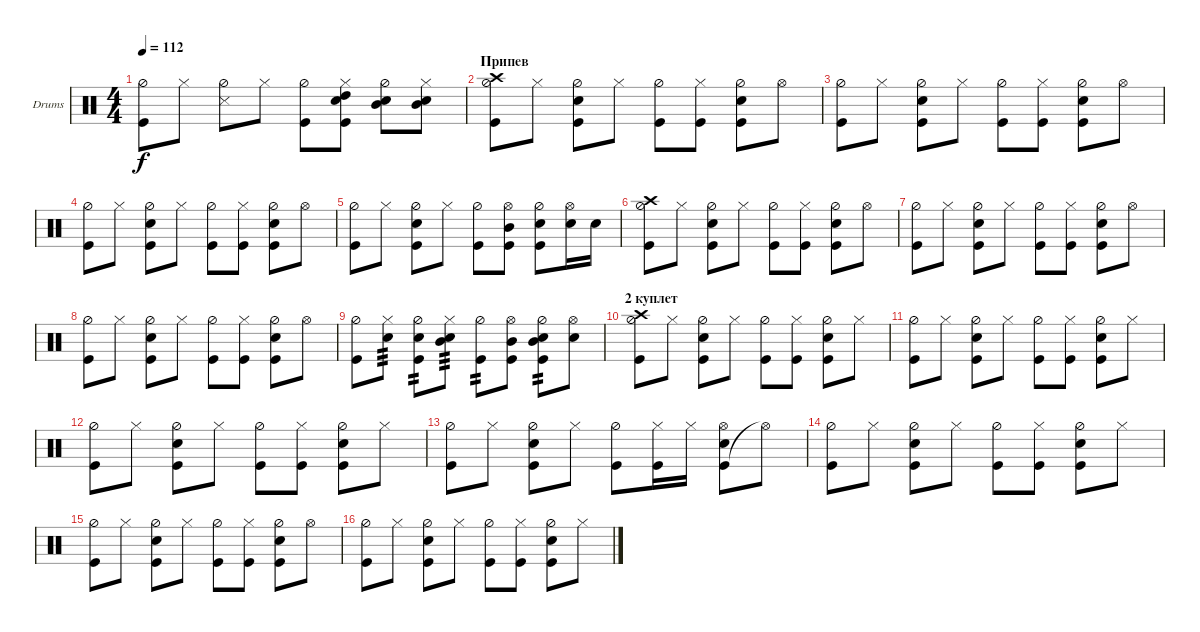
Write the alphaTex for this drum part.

\defaultSystemsLayout 4
\bracketExtendMode groupsimilarinstruments
\firstSystemTrackNameOrientation horizontal
\otherSystemsTrackNameOrientation horizontal
\track ("Drumkit" "Drums") {instrument percussion}
\staff {score}
\articulation defaults
\ts (4 4)
\tempo 112
\clef neutral
\ks c
("Hi-Hat (half)" "Kick (hit)").8{dy f} "Hi-Hat (closed)".8 ("Hi-Hat (half)" "Snare (side stick) 3").8 "Hi-Hat (closed)".8 ("Hi-Hat (half)" "Kick (hit)").8 ("Hi-Hat (closed)" "Kick (hit)" "High Tom (hit)" "Snare (hit) 2").8 ("Hi-Hat (half)" "Mid Tom (hit)" "Snare (hit) 2").8 ("Hi-Hat (closed)" "Mid Tom (hit)" "Snare (hit) 2").8 |
\section ("" "Припев")
("Hi-Hat (half)" "Kick (hit)" "Crash high (hit)").8 "Hi-Hat (closed)".8 ("Hi-Hat (half)" "Snare (hit) 2" "Kick (hit)").8 "Hi-Hat (closed)".8 ("Hi-Hat (half)" "Kick (hit)").8 ("Hi-Hat (closed)" "Kick (hit)").8 ("Hi-Hat (half)" "Snare (hit) 2" "Kick (hit)").8 "Hi-Hat (open)".8 |
("Hi-Hat (half)" "Kick (hit)").8 "Hi-Hat (closed)".8 ("Hi-Hat (half)" "Snare (hit) 2" "Kick (hit)").8 "Hi-Hat (closed)".8 ("Hi-Hat (half)" "Kick (hit)").8 ("Hi-Hat (closed)" "Kick (hit)").8 ("Hi-Hat (half)" "Snare (hit) 2" "Kick (hit)").8 "Hi-Hat (open)".8 |
("Hi-Hat (half)" "Kick (hit)").8 "Hi-Hat (closed)".8 ("Hi-Hat (half)" "Snare (hit) 2" "Kick (hit)").8 "Hi-Hat (closed)".8 ("Hi-Hat (half)" "Kick (hit)").8 ("Hi-Hat (closed)" "Kick (hit)").8 ("Hi-Hat (half)" "Snare (hit) 2" "Kick (hit)").8 "Hi-Hat (open)".8 |
("Hi-Hat (half)" "Kick (hit)").8 "Hi-Hat (closed)".8 ("Hi-Hat (half)" "Snare (hit) 2" "Kick (hit)").8 "Hi-Hat (closed)".8 ("Hi-Hat (half)" "Kick (hit)").8 ("Hi-Hat (open)" "Kick (hit)" "Mid Tom (hit)").8 ("Hi-Hat (half)" "Snare (hit) 2" "Kick (hit)").8 ("Hi-Hat (open)" "Snare (hit) 2").16 "Snare (hit) 2".16 |
("Hi-Hat (half)" "Kick (hit)" "Crash high (hit)").8 "Hi-Hat (closed)".8 ("Hi-Hat (half)" "Snare (hit) 2" "Kick (hit)").8 "Hi-Hat (closed)".8 ("Hi-Hat (half)" "Kick (hit)").8 ("Hi-Hat (closed)" "Kick (hit)").8 ("Hi-Hat (half)" "Snare (hit) 2" "Kick (hit)").8 "Hi-Hat (open)".8 |
("Hi-Hat (half)" "Kick (hit)").8 "Hi-Hat (closed)".8 ("Hi-Hat (half)" "Snare (hit) 2" "Kick (hit)").8 "Hi-Hat (closed)".8 ("Hi-Hat (half)" "Kick (hit)").8 ("Hi-Hat (closed)" "Kick (hit)").8 ("Hi-Hat (half)" "Snare (hit) 2" "Kick (hit)").8 "Hi-Hat (open)".8 |
("Hi-Hat (half)" "Kick (hit)").8 "Hi-Hat (closed)".8 ("Hi-Hat (half)" "Snare (hit) 2" "Kick (hit)").8 "Hi-Hat (closed)".8 ("Hi-Hat (half)" "Kick (hit)").8 ("Hi-Hat (closed)" "Kick (hit)").8 ("Hi-Hat (half)" "Snare (hit) 2" "Kick (hit)").8 "Hi-Hat (open)".8 |
("Hi-Hat (half)" "Kick (hit)").8 ("Hi-Hat (closed)" "Snare (hit) 2").8{tp 3} ("Hi-Hat (half)" "Snare (hit) 2" "Kick (hit)").8{tp 2} ("Hi-Hat (closed)" "Snare (hit) 2" "Mid Tom (hit)").8{tp 3} ("Hi-Hat (half)" "Kick (hit)").8{tp 2} ("Hi-Hat (open)" "Kick (hit)" "Mid Tom (hit)").8 ("Hi-Hat (half)" "Snare (hit) 2" "Kick (hit)" "Mid Tom (hit)").8{tp 2} ("Hi-Hat (open)" "Snare (hit) 2").8 |
\section ("" "2 куплет")
("Hi-Hat (half)" "Kick (hit)" "Crash high (hit)").8 "Hi-Hat (closed)".8 ("Hi-Hat (half)" "Snare (hit) 2" "Kick (hit)").8 "Hi-Hat (closed)".8 ("Hi-Hat (half)" "Kick (hit)").8 ("Kick (hit)" "Hi-Hat (closed)").8 ("Hi-Hat (half)" "Snare (hit) 2" "Kick (hit)").8 "Hi-Hat (closed)".8 |
("Hi-Hat (half)" "Kick (hit)").8 "Hi-Hat (closed)".8 ("Hi-Hat (half)" "Snare (hit) 2" "Kick (hit)").8 "Hi-Hat (closed)".8 ("Hi-Hat (half)" "Kick (hit)").8 ("Hi-Hat (closed)" "Kick (hit)").8 ("Hi-Hat (half)" "Snare (hit) 2" "Kick (hit)").8 "Hi-Hat (closed)".8 |
("Hi-Hat (half)" "Kick (hit)").8 "Hi-Hat (closed)".8 ("Hi-Hat (half)" "Snare (hit) 2" "Kick (hit)").8 "Hi-Hat (closed)".8 ("Hi-Hat (half)" "Kick (hit)").8 ("Hi-Hat (closed)" "Kick (hit)").8 ("Hi-Hat (half)" "Snare (hit) 2" "Kick (hit)").8 "Hi-Hat (closed)".8 |
("Hi-Hat (half)" "Kick (hit)").8 "Hi-Hat (closed)".8 ("Hi-Hat (half)" "Snare (hit) 2" "Kick (hit)").8 "Hi-Hat (closed)".8 ("Hi-Hat (half)" "Kick (hit)").8 ("Hi-Hat (closed)" "Kick (hit)").16 "Hi-Hat (closed)".16 ("Kick (hit)" "Snare (hit) 2" "Hi-Hat (open)").8 "Hi-Hat (open)"{t}.8 |
("Hi-Hat (half)" "Kick (hit)").8 "Hi-Hat (closed)".8 ("Hi-Hat (half)" "Snare (hit) 2" "Kick (hit)").8 "Hi-Hat (closed)".8 ("Hi-Hat (half)" "Kick (hit)").8 ("Hi-Hat (closed)" "Kick (hit)").8 ("Hi-Hat (half)" "Snare (hit) 2" "Kick (hit)").8 "Hi-Hat (closed)".8 |
("Hi-Hat (half)" "Kick (hit)").8 "Hi-Hat (closed)".8 ("Hi-Hat (half)" "Snare (hit) 2" "Kick (hit)").8 "Hi-Hat (closed)".8 ("Hi-Hat (half)" "Kick (hit)").8 ("Hi-Hat (closed)" "Kick (hit)").8 ("Hi-Hat (half)" "Snare (hit) 2" "Kick (hit)").8 "Hi-Hat (open)".8 |
("Hi-Hat (half)" "Kick (hit)").8 "Hi-Hat (closed)".8 ("Hi-Hat (half)" "Snare (hit) 2" "Kick (hit)").8 "Hi-Hat (closed)".8 ("Hi-Hat (half)" "Kick (hit)").8 ("Hi-Hat (closed)" "Kick (hit)").8 ("Hi-Hat (half)" "Snare (hit) 2" "Kick (hit)").8 "Hi-Hat (closed)".8
